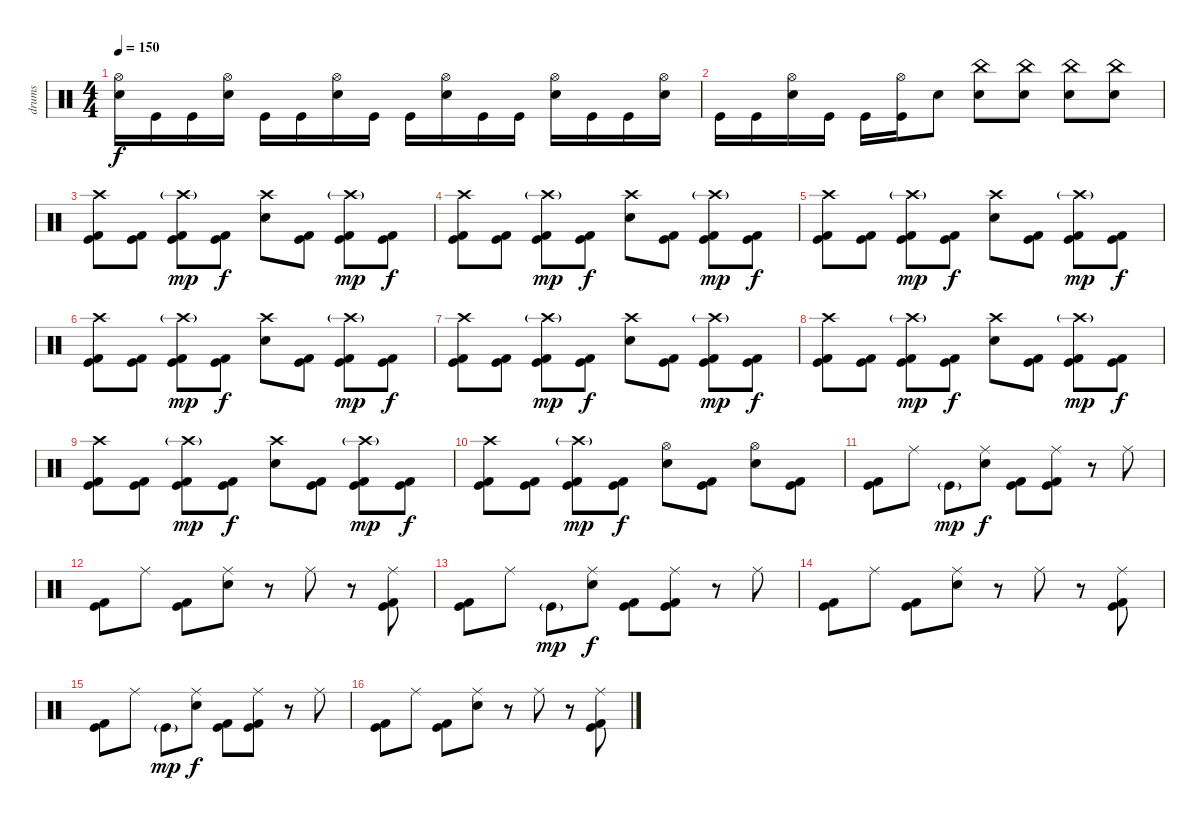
\track ("drums" "drums") {instrument percussion}
\staff {score}
\articulation defaults
\ts (4 4)
\tempo 150
\clef neutral
\ks c
("Electric Snare (hit)" "Hi-Hat (open)").16{dy f} "Kick (hit)".16 "Kick (hit)".16 ("Electric Snare (hit)" "Hi-Hat (open)").16 "Kick (hit)".16 "Kick (hit)".16 ("Electric Snare (hit)" "Hi-Hat (open)").16 "Kick (hit)".16 "Kick (hit)".16 ("Electric Snare (hit)" "Hi-Hat (open)").16 "Kick (hit)".16 "Kick (hit)".16 ("Electric Snare (hit)" "Hi-Hat (open)").16 "Kick (hit)".16 "Kick (hit)".16 ("Electric Snare (hit)" "Hi-Hat (open)").16 |
"Kick (hit)".16 "Kick (hit)".16 ("Electric Snare (hit)" "Hi-Hat (open)").16 "Kick (hit)".16 "Kick (hit)".16 ("Kick (hit)" "Hi-Hat (open)").16 "Electric Snare (hit)".8 ("Electric Snare (hit)" "China (hit)").8 ("Electric Snare (hit)" "China (hit)").8 ("Electric Snare (hit)" "China (hit)").8 ("Electric Snare (hit)" "China (hit)").8 |
("Kick (hit)" "Kick (hit) 2" "Crash high (hit)").8 ("Kick (hit)" "Kick (hit) 2").8 ("Kick (hit)" "Kick (hit) 2" "Crash high (hit)"{g}).8{dy mp} ("Kick (hit)" "Kick (hit) 2").8{dy f} ("Electric Snare (hit)" "Crash high (hit)").8 ("Kick (hit)" "Kick (hit) 2").8 ("Kick (hit)" "Kick (hit) 2" "Crash high (hit)"{g}).8{dy mp} ("Kick (hit)" "Kick (hit) 2").8{dy f} |
("Kick (hit)" "Kick (hit) 2" "Crash high (hit)").8 ("Kick (hit)" "Kick (hit) 2").8 ("Kick (hit)" "Kick (hit) 2" "Crash high (hit)"{g}).8{dy mp} ("Kick (hit)" "Kick (hit) 2").8{dy f} ("Electric Snare (hit)" "Crash high (hit)").8 ("Kick (hit)" "Kick (hit) 2").8 ("Kick (hit)" "Kick (hit) 2" "Crash high (hit)"{g}).8{dy mp} ("Kick (hit)" "Kick (hit) 2").8{dy f} |
("Kick (hit)" "Kick (hit) 2" "Crash high (hit)").8 ("Kick (hit)" "Kick (hit) 2").8 ("Kick (hit)" "Kick (hit) 2" "Crash high (hit)"{g}).8{dy mp} ("Kick (hit)" "Kick (hit) 2").8{dy f} ("Electric Snare (hit)" "Crash high (hit)").8 ("Kick (hit)" "Kick (hit) 2").8 ("Kick (hit)" "Kick (hit) 2" "Crash high (hit)"{g}).8{dy mp} ("Kick (hit)" "Kick (hit) 2").8{dy f} |
("Kick (hit)" "Kick (hit) 2" "Crash high (hit)").8 ("Kick (hit)" "Kick (hit) 2").8 ("Kick (hit)" "Kick (hit) 2" "Crash high (hit)"{g}).8{dy mp} ("Kick (hit)" "Kick (hit) 2").8{dy f} ("Electric Snare (hit)" "Crash high (hit)").8 ("Kick (hit)" "Kick (hit) 2").8 ("Kick (hit)" "Kick (hit) 2" "Crash high (hit)"{g}).8{dy mp} ("Kick (hit)" "Kick (hit) 2").8{dy f} |
("Kick (hit)" "Kick (hit) 2" "Crash high (hit)").8 ("Kick (hit)" "Kick (hit) 2").8 ("Kick (hit)" "Kick (hit) 2" "Crash high (hit)"{g}).8{dy mp} ("Kick (hit)" "Kick (hit) 2").8{dy f} ("Electric Snare (hit)" "Crash high (hit)").8 ("Kick (hit)" "Kick (hit) 2").8 ("Kick (hit)" "Kick (hit) 2" "Crash high (hit)"{g}).8{dy mp} ("Kick (hit)" "Kick (hit) 2").8{dy f} |
("Kick (hit)" "Kick (hit) 2" "Crash high (hit)").8 ("Kick (hit)" "Kick (hit) 2").8 ("Kick (hit)" "Kick (hit) 2" "Crash high (hit)"{g}).8{dy mp} ("Kick (hit)" "Kick (hit) 2").8{dy f} ("Electric Snare (hit)" "Crash high (hit)").8 ("Kick (hit)" "Kick (hit) 2").8 ("Kick (hit)" "Kick (hit) 2" "Crash high (hit)"{g}).8{dy mp} ("Kick (hit)" "Kick (hit) 2").8{dy f} |
("Kick (hit)" "Kick (hit) 2" "Crash high (hit)").8 ("Kick (hit)" "Kick (hit) 2").8 ("Kick (hit)" "Kick (hit) 2" "Crash high (hit)"{g}).8{dy mp} ("Kick (hit)" "Kick (hit) 2").8{dy f} ("Electric Snare (hit)" "Crash high (hit)").8 ("Kick (hit)" "Kick (hit) 2").8 ("Kick (hit)" "Kick (hit) 2" "Crash high (hit)"{g}).8{dy mp} ("Kick (hit)" "Kick (hit) 2").8{dy f} |
("Kick (hit)" "Kick (hit) 2" "Crash high (hit)").8 ("Kick (hit)" "Kick (hit) 2").8 ("Kick (hit)" "Kick (hit) 2" "Crash high (hit)"{g}).8{dy mp} ("Kick (hit)" "Kick (hit) 2").8{dy f} ("Electric Snare (hit)" "Hi-Hat (open)").8 ("Kick (hit)" "Kick (hit) 2").8 ("Electric Snare (hit)" "Hi-Hat (open)").8 ("Kick (hit)" "Kick (hit) 2").8 |
("Kick (hit)" "Kick (hit) 2").8 "Ride (middle)".8 "Kick (hit)"{g}.8{dy mp} ("Electric Snare (hit)" "Ride (middle)").8{dy f} ("Kick (hit)" "Kick (hit) 2").8 ("Kick (hit)" "Kick (hit) 2" "Ride (middle)").8 r.8 "Ride (middle)".8 |
("Kick (hit)" "Kick (hit) 2").8 "Ride (middle)".8 ("Kick (hit)" "Kick (hit) 2").8 ("Electric Snare (hit)" "Ride (middle)").8 r.8 "Ride (middle)".8 r.8 ("Kick (hit)" "Kick (hit) 2" "Ride (middle)").8 |
("Kick (hit)" "Kick (hit) 2").8 "Ride (middle)".8 "Kick (hit)"{g}.8{dy mp} ("Electric Snare (hit)" "Ride (middle)").8{dy f} ("Kick (hit)" "Kick (hit) 2").8 ("Kick (hit)" "Kick (hit) 2" "Ride (middle)").8 r.8 "Ride (middle)".8 |
("Kick (hit)" "Kick (hit) 2").8 "Ride (middle)".8 ("Kick (hit)" "Kick (hit) 2").8 ("Electric Snare (hit)" "Ride (middle)").8 r.8 "Ride (middle)".8 r.8 ("Kick (hit)" "Kick (hit) 2" "Ride (middle)").8 |
("Kick (hit)" "Kick (hit) 2").8 "Ride (middle)".8 "Kick (hit)"{g}.8{dy mp} ("Electric Snare (hit)" "Ride (middle)").8{dy f} ("Kick (hit)" "Kick (hit) 2").8 ("Kick (hit)" "Kick (hit) 2" "Ride (middle)").8 r.8 "Ride (middle)".8 |
("Kick (hit)" "Kick (hit) 2").8 "Ride (middle)".8 ("Kick (hit)" "Kick (hit) 2").8 ("Electric Snare (hit)" "Ride (middle)").8 r.8 "Ride (middle)".8 r.8 ("Kick (hit)" "Kick (hit) 2" "Ride (middle)").8
